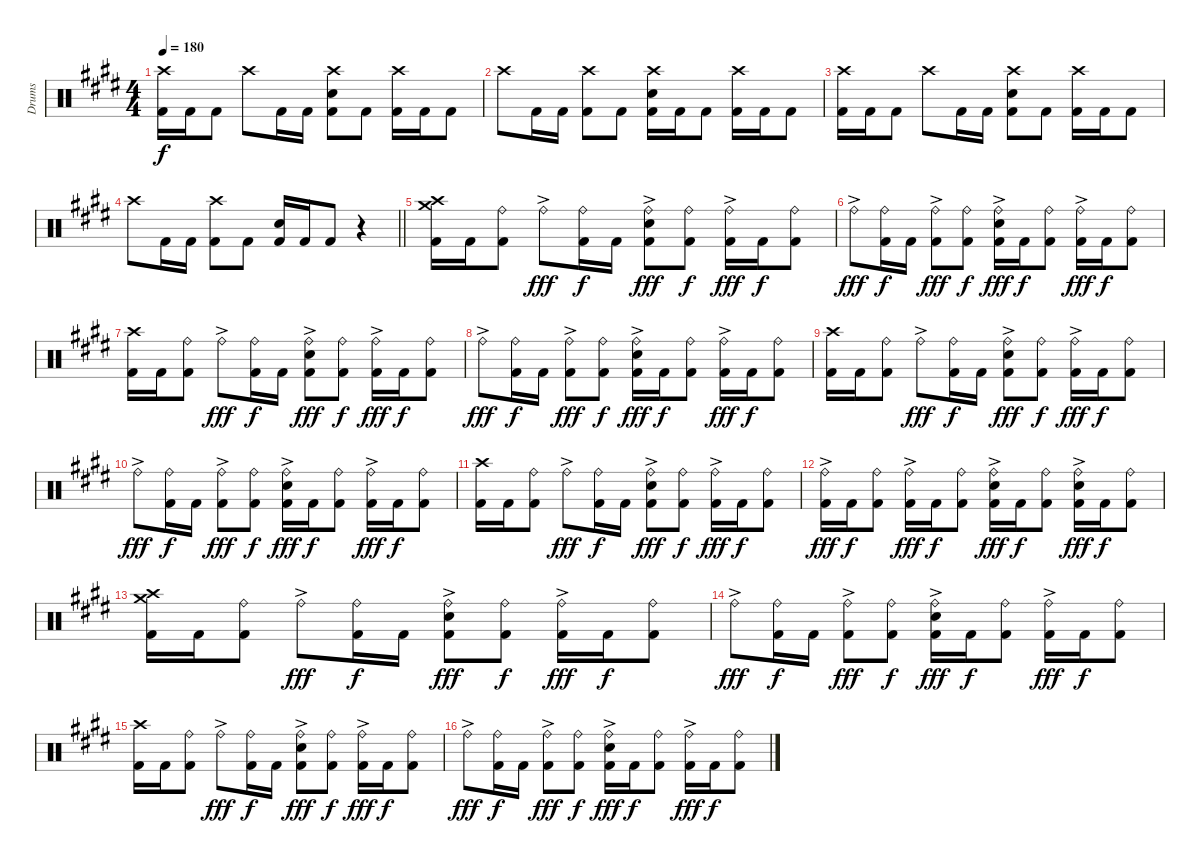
\track ("Drums" "Drums") {instrument percussion}
\staff {score}
\articulation defaults
\ts (4 4)
\tempo 180
\clef neutral
\ks c#minor
("Crash high (hit)" "Kick (hit) 2").16{dy f} "Kick (hit) 2".16 "Kick (hit) 2".8 "Crash high (hit)".8 "Kick (hit) 2".16 "Kick (hit) 2".16 ("Crash high (hit)" "Snare (hit) 2" "Kick (hit) 2").8 "Kick (hit) 2".8 ("Crash high (hit)" "Kick (hit) 2").16 "Kick (hit) 2".16 "Kick (hit) 2".8 |
"Crash high (hit)".8 "Kick (hit) 2".16 "Kick (hit) 2".16 ("Crash high (hit)" "Kick (hit) 2").8 "Kick (hit) 2".8 ("Crash high (hit)" "Snare (hit) 2" "Kick (hit) 2").16 "Kick (hit) 2".16 "Kick (hit) 2".8 ("Crash high (hit)" "Kick (hit) 2").16 "Kick (hit) 2".16 "Kick (hit) 2".8 |
("Crash high (hit)" "Kick (hit) 2").16 "Kick (hit) 2".16 "Kick (hit) 2".8 "Crash high (hit)".8 "Kick (hit) 2".16 "Kick (hit) 2".16 ("Crash high (hit)" "Snare (hit) 2" "Kick (hit) 2").8 "Kick (hit) 2".8 ("Crash high (hit)" "Kick (hit) 2").16 "Kick (hit) 2".16 "Kick (hit) 2".8 |
\barLineRight lightlight "Crash high (hit)".8 "Kick (hit) 2".16 "Kick (hit) 2".16
("Crash high (hit)" "Kick (hit) 2").8 "Kick (hit) 2".8 ("Snare (hit) 2" "Kick (hit) 2").16 "Kick (hit) 2".16 "Kick (hit) 2".8 r.4 |
("Crash high (hit)" "Crash medium (hit)" "Kick (hit) 2").16 "Kick (hit) 2".16 ("Ride (bell)" "Kick (hit) 2").8 "Ride (bell)"{ac}.8{dy fff} ("Ride (bell)" "Kick (hit) 2").16{dy f} "Kick (hit) 2".16 ("Ride (bell)"{ac} "Snare (hit) 2" "Kick (hit) 2").8{dy fff} ("Ride (bell)" "Kick (hit) 2").8{dy f} ("Ride (bell)"{ac} "Kick (hit) 2").16{dy fff} "Kick (hit) 2".16{dy f} ("Ride (bell)" "Kick (hit) 2").8 |
"Ride (bell)"{ac}.8{dy fff} ("Ride (bell)" "Kick (hit) 2").16{dy f} "Kick (hit) 2".16 ("Ride (bell)"{ac} "Kick (hit) 2").8{dy fff} ("Ride (bell)" "Kick (hit) 2").8{dy f} ("Ride (bell)"{ac} "Snare (hit) 2" "Kick (hit) 2").16{dy fff} "Kick (hit) 2".16{dy f} ("Ride (bell)" "Kick (hit) 2").8 ("Ride (bell)"{ac} "Kick (hit) 2").16{dy fff} "Kick (hit) 2".16{dy f} ("Ride (bell)" "Kick (hit) 2").8 |
("Crash high (hit)" "Kick (hit) 2").16 "Kick (hit) 2".16 ("Ride (bell)" "Kick (hit) 2").8 "Ride (bell)"{ac}.8{dy fff} ("Ride (bell)" "Kick (hit) 2").16{dy f} "Kick (hit) 2".16 ("Ride (bell)"{ac} "Snare (hit) 2" "Kick (hit) 2").8{dy fff} ("Ride (bell)" "Kick (hit) 2").8{dy f} ("Ride (bell)"{ac} "Kick (hit) 2").16{dy fff} "Kick (hit) 2".16{dy f} ("Ride (bell)" "Kick (hit) 2").8 |
"Ride (bell)"{ac}.8{dy fff} ("Ride (bell)" "Kick (hit) 2").16{dy f} "Kick (hit) 2".16 ("Ride (bell)"{ac} "Kick (hit) 2").8{dy fff} ("Ride (bell)" "Kick (hit) 2").8{dy f} ("Ride (bell)"{ac} "Snare (hit) 2" "Kick (hit) 2").16{dy fff} "Kick (hit) 2".16{dy f} ("Ride (bell)" "Kick (hit) 2").8 ("Ride (bell)"{ac} "Kick (hit) 2").16{dy fff} "Kick (hit) 2".16{dy f} ("Ride (bell)" "Kick (hit) 2").8 |
("Crash high (hit)" "Kick (hit) 2").16 "Kick (hit) 2".16 ("Ride (bell)" "Kick (hit) 2").8 "Ride (bell)"{ac}.8{dy fff} ("Ride (bell)" "Kick (hit) 2").16{dy f} "Kick (hit) 2".16 ("Ride (bell)"{ac} "Snare (hit) 2" "Kick (hit) 2").8{dy fff} ("Ride (bell)" "Kick (hit) 2").8{dy f} ("Ride (bell)"{ac} "Kick (hit) 2").16{dy fff} "Kick (hit) 2".16{dy f} ("Ride (bell)" "Kick (hit) 2").8 |
"Ride (bell)"{ac}.8{dy fff} ("Ride (bell)" "Kick (hit) 2").16{dy f} "Kick (hit) 2".16 ("Ride (bell)"{ac} "Kick (hit) 2").8{dy fff} ("Ride (bell)" "Kick (hit) 2").8{dy f} ("Ride (bell)"{ac} "Snare (hit) 2" "Kick (hit) 2").16{dy fff} "Kick (hit) 2".16{dy f} ("Ride (bell)" "Kick (hit) 2").8 ("Ride (bell)"{ac} "Kick (hit) 2").16{dy fff} "Kick (hit) 2".16{dy f} ("Ride (bell)" "Kick (hit) 2").8 |
("Crash high (hit)" "Kick (hit) 2").16 "Kick (hit) 2".16 ("Ride (bell)" "Kick (hit) 2").8 "Ride (bell)"{ac}.8{dy fff} ("Ride (bell)" "Kick (hit) 2").16{dy f} "Kick (hit) 2".16 ("Ride (bell)"{ac} "Snare (hit) 2" "Kick (hit) 2").8{dy fff} ("Ride (bell)" "Kick (hit) 2").8{dy f} ("Ride (bell)"{ac} "Kick (hit) 2").16{dy fff} "Kick (hit) 2".16{dy f} ("Ride (bell)" "Kick (hit) 2").8 |
("Ride (bell)"{ac} "Kick (hit) 2").16{dy fff} "Kick (hit) 2".16{dy f} ("Ride (bell)" "Kick (hit) 2").8 ("Ride (bell)"{ac} "Kick (hit) 2").16{dy fff} "Kick (hit) 2".16{dy f} ("Ride (bell)" "Kick (hit) 2").8 ("Ride (bell)"{ac} "Snare (hit) 2" "Kick (hit) 2").16{dy fff} "Kick (hit) 2".16{dy f} ("Ride (bell)" "Kick (hit) 2").8 ("Ride (bell)"{ac} "Snare (hit) 2" "Kick (hit) 2").16{dy fff} "Kick (hit) 2".16{dy f} ("Ride (bell)" "Kick (hit) 2").8 |
("Crash high (hit)" "Crash medium (hit)" "Kick (hit) 2").16 "Kick (hit) 2".16 ("Ride (bell)" "Kick (hit) 2").8 "Ride (bell)"{ac}.8{dy fff} ("Ride (bell)" "Kick (hit) 2").16{dy f} "Kick (hit) 2".16 ("Ride (bell)"{ac} "Snare (hit) 2" "Kick (hit) 2").8{dy fff} ("Ride (bell)" "Kick (hit) 2").8{dy f} ("Ride (bell)"{ac} "Kick (hit) 2").16{dy fff} "Kick (hit) 2".16{dy f} ("Ride (bell)" "Kick (hit) 2").8 |
"Ride (bell)"{ac}.8{dy fff} ("Ride (bell)" "Kick (hit) 2").16{dy f} "Kick (hit) 2".16 ("Ride (bell)"{ac} "Kick (hit) 2").8{dy fff} ("Ride (bell)" "Kick (hit) 2").8{dy f} ("Ride (bell)"{ac} "Snare (hit) 2" "Kick (hit) 2").16{dy fff} "Kick (hit) 2".16{dy f} ("Ride (bell)" "Kick (hit) 2").8 ("Ride (bell)"{ac} "Kick (hit) 2").16{dy fff} "Kick (hit) 2".16{dy f} ("Ride (bell)" "Kick (hit) 2").8 |
("Crash high (hit)" "Kick (hit) 2").16 "Kick (hit) 2".16 ("Ride (bell)" "Kick (hit) 2").8 "Ride (bell)"{ac}.8{dy fff} ("Ride (bell)" "Kick (hit) 2").16{dy f} "Kick (hit) 2".16 ("Ride (bell)"{ac} "Snare (hit) 2" "Kick (hit) 2").8{dy fff} ("Ride (bell)" "Kick (hit) 2").8{dy f} ("Ride (bell)"{ac} "Kick (hit) 2").16{dy fff} "Kick (hit) 2".16{dy f} ("Ride (bell)" "Kick (hit) 2").8 |
"Ride (bell)"{ac}.8{dy fff} ("Ride (bell)" "Kick (hit) 2").16{dy f} "Kick (hit) 2".16 ("Ride (bell)"{ac} "Kick (hit) 2").8{dy fff} ("Ride (bell)" "Kick (hit) 2").8{dy f} ("Ride (bell)"{ac} "Snare (hit) 2" "Kick (hit) 2").16{dy fff} "Kick (hit) 2".16{dy f} ("Ride (bell)" "Kick (hit) 2").8 ("Ride (bell)"{ac} "Kick (hit) 2").16{dy fff} "Kick (hit) 2".16{dy f} ("Ride (bell)" "Kick (hit) 2").8
